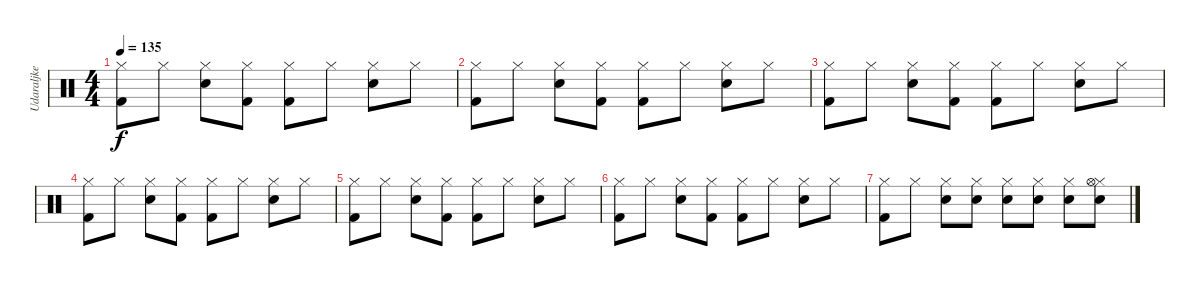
\track ("Udaraljke" "Udaraljke") {instrument percussion}
\staff {score}
\articulation defaults
\ts (4 4)
\tempo 135
\clef neutral
\ks c
("Hi-Hat (closed)" "Kick (hit) 2").8{dy f} "Hi-Hat (closed)".8 ("Hi-Hat (closed)" "Electric Snare (hit)").8 ("Hi-Hat (closed)" "Kick (hit) 2").8 ("Hi-Hat (closed)" "Kick (hit) 2").8 "Hi-Hat (closed)".8 ("Hi-Hat (closed)" "Electric Snare (hit)").8 "Hi-Hat (closed)".8 |
("Hi-Hat (closed)" "Kick (hit) 2").8 "Hi-Hat (closed)".8 ("Hi-Hat (closed)" "Electric Snare (hit)").8 ("Hi-Hat (closed)" "Kick (hit) 2").8 ("Hi-Hat (closed)" "Kick (hit) 2").8 "Hi-Hat (closed)".8 ("Hi-Hat (closed)" "Electric Snare (hit)").8 "Hi-Hat (closed)".8 |
("Hi-Hat (closed)" "Kick (hit) 2").8 "Hi-Hat (closed)".8 ("Hi-Hat (closed)" "Electric Snare (hit)").8 ("Hi-Hat (closed)" "Kick (hit) 2").8 ("Hi-Hat (closed)" "Kick (hit) 2").8 "Hi-Hat (closed)".8 ("Hi-Hat (closed)" "Electric Snare (hit)").8 "Hi-Hat (closed)".8 |
("Hi-Hat (closed)" "Kick (hit) 2").8 "Hi-Hat (closed)".8 ("Hi-Hat (closed)" "Electric Snare (hit)").8 ("Hi-Hat (closed)" "Kick (hit) 2").8 ("Hi-Hat (closed)" "Kick (hit) 2").8 "Hi-Hat (closed)".8 ("Hi-Hat (closed)" "Electric Snare (hit)").8 "Hi-Hat (closed)".8 |
("Hi-Hat (closed)" "Kick (hit) 2").8 "Hi-Hat (closed)".8 ("Hi-Hat (closed)" "Electric Snare (hit)").8 ("Hi-Hat (closed)" "Kick (hit) 2").8 ("Hi-Hat (closed)" "Kick (hit) 2").8 "Hi-Hat (closed)".8 ("Hi-Hat (closed)" "Electric Snare (hit)").8 "Hi-Hat (closed)".8 |
("Hi-Hat (closed)" "Kick (hit) 2").8 "Hi-Hat (closed)".8 ("Hi-Hat (closed)" "Electric Snare (hit)").8 ("Hi-Hat (closed)" "Kick (hit) 2").8 ("Hi-Hat (closed)" "Kick (hit) 2").8 "Hi-Hat (closed)".8 ("Hi-Hat (closed)" "Electric Snare (hit)").8 "Hi-Hat (closed)".8 |
("Hi-Hat (closed)" "Kick (hit) 2").8 "Hi-Hat (closed)".8 ("Hi-Hat (closed)" "Electric Snare (hit)").8 ("Hi-Hat (closed)" "Electric Snare (hit)").8 ("Hi-Hat (closed)" "Electric Snare (hit)").8 ("Hi-Hat (closed)" "Electric Snare (hit)").8 ("Hi-Hat (closed)" "Electric Snare (hit)").8 ("Hi-Hat (closed)" "Hi-Hat (open)" "Electric Snare (hit)").8
